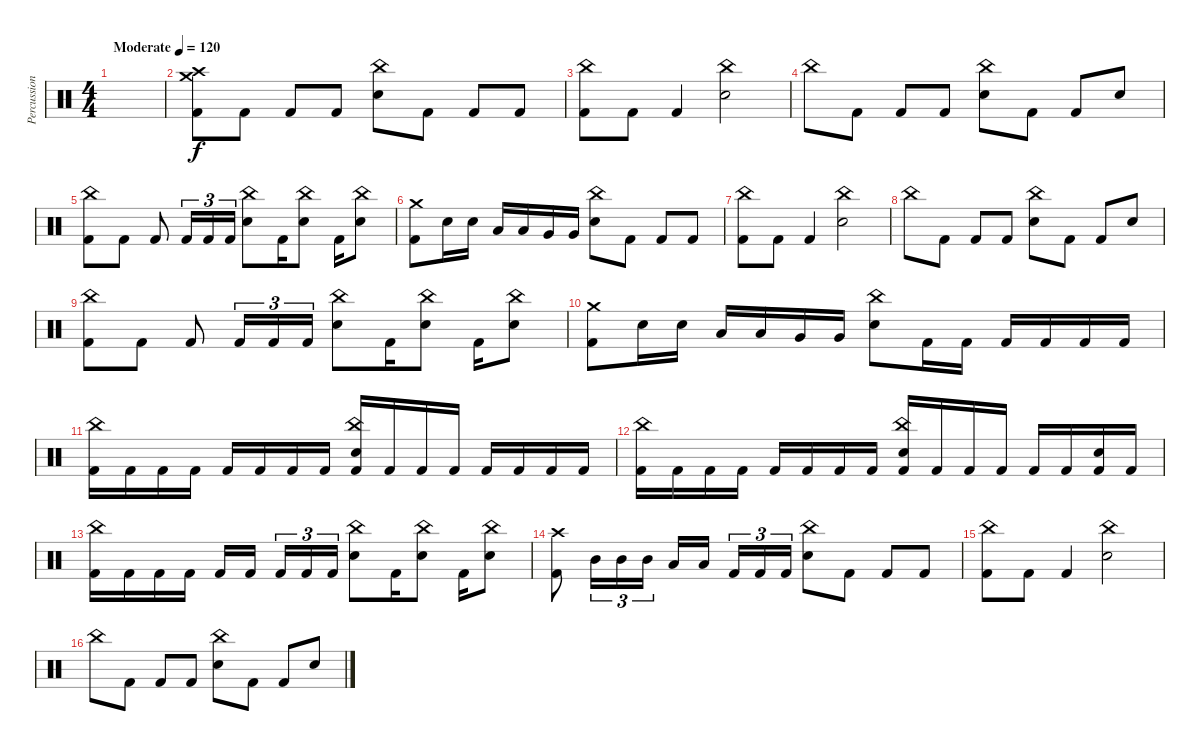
\track ("Percussion" "Percussion") {instrument percussion}
\staff {score}
\articulation defaults
\ts (4 4)
\tempo (120 "Moderate")
\clef neutral
\ks c
|
("Crash high (hit)" "Crash medium (hit)" "Kick (hit) 2").8 "Kick (hit) 2".8 "Kick (hit) 2".8 "Kick (hit) 2".8 ("China (hit)" "Electric Snare (hit)").8 "Kick (hit) 2".8 "Kick (hit) 2".8 "Kick (hit) 2".8 |
("China (hit)" "Kick (hit) 2").8 "Kick (hit) 2".8 "Kick (hit) 2".4 ("China (hit)" "Electric Snare (hit)").2 |
"China (hit)".8 "Kick (hit) 2".8 "Kick (hit) 2".8 "Kick (hit) 2".8 ("China (hit)" "Electric Snare (hit)").8 "Kick (hit) 2".8 "Kick (hit) 2".8 "Electric Snare (hit)".8 |
("China (hit)" "Kick (hit) 2").8 "Kick (hit) 2".8 "Kick (hit) 2".8 "Kick (hit) 2".16{tu (3 2)} "Kick (hit) 2".16{tu (3 2)} "Kick (hit) 2".16{tu (3 2)} ("China (hit)" "Electric Snare (hit)").8 "Kick (hit) 2".16 ("China (hit)" "Electric Snare (hit)").8 "Kick (hit) 2".16 ("China (hit)" "Electric Snare (hit)").8 |
("Crash medium (hit)" "Kick (hit) 2").8 "Electric Snare (hit)".16 "Electric Snare (hit)".16 "Low Tom (hit)".16 "Low Tom (hit)".16 "Very Low Tom (hit)".16 "Very Low Tom (hit)".16 ("China (hit)" "Electric Snare (hit)").8 "Kick (hit) 2".8 "Kick (hit) 2".8 "Kick (hit) 2".8 |
("China (hit)" "Kick (hit) 2").8 "Kick (hit) 2".8 "Kick (hit) 2".4 ("China (hit)" "Electric Snare (hit)").2 |
"China (hit)".8 "Kick (hit) 2".8 "Kick (hit) 2".8 "Kick (hit) 2".8 ("China (hit)" "Electric Snare (hit)").8 "Kick (hit) 2".8 "Kick (hit) 2".8 "Electric Snare (hit)".8 |
("China (hit)" "Kick (hit) 2").8 "Kick (hit) 2".8 "Kick (hit) 2".8 "Kick (hit) 2".16{tu (3 2)} "Kick (hit) 2".16{tu (3 2)} "Kick (hit) 2".16{tu (3 2)} ("China (hit)" "Electric Snare (hit)").8 "Kick (hit) 2".16 ("China (hit)" "Electric Snare (hit)").8 "Kick (hit) 2".16 ("China (hit)" "Electric Snare (hit)").8 |
("Crash medium (hit)" "Kick (hit) 2").8 "Electric Snare (hit)".16 "Electric Snare (hit)".16 "Low Tom (hit)".16 "Low Tom (hit)".16 "Very Low Tom (hit)".16 "Very Low Tom (hit)".16 ("China (hit)" "Electric Snare (hit)").8 "Kick (hit) 2".16 "Kick (hit) 2".16 "Kick (hit) 2".16 "Kick (hit) 2".16 "Kick (hit) 2".16 "Kick (hit) 2".16 |
("China (hit)" "Kick (hit) 2").16 "Kick (hit) 2".16 "Kick (hit) 2".16 "Kick (hit) 2".16 "Kick (hit) 2".16 "Kick (hit) 2".16 "Kick (hit) 2".16 "Kick (hit) 2".16 ("China (hit)" "Electric Snare (hit)" "Kick (hit) 2").16 "Kick (hit) 2".16 "Kick (hit) 2".16 "Kick (hit) 2".16 "Kick (hit) 2".16 "Kick (hit) 2".16 "Kick (hit) 2".16 "Kick (hit) 2".16 |
("China (hit)" "Kick (hit) 2").16 "Kick (hit) 2".16 "Kick (hit) 2".16 "Kick (hit) 2".16 "Kick (hit) 2".16 "Kick (hit) 2".16 "Kick (hit) 2".16 "Kick (hit) 2".16 ("China (hit)" "Electric Snare (hit)" "Kick (hit) 2").16 "Kick (hit) 2".16 "Kick (hit) 2".16 "Kick (hit) 2".16 "Kick (hit) 2".16 "Kick (hit) 2".16 ("Electric Snare (hit)" "Kick (hit) 2").16 "Kick (hit) 2".16 |
("China (hit)" "Kick (hit) 2").16 "Kick (hit) 2".16 "Kick (hit) 2".16 "Kick (hit) 2".16 "Kick (hit) 2".16 "Kick (hit) 2".16{beam splitsecondary} "Kick (hit) 2".16{tu (3 2)} "Kick (hit) 2".16{tu (3 2)} "Kick (hit) 2".16{tu (3 2)} ("China (hit)" "Electric Snare (hit)").8 "Kick (hit) 2".16 ("China (hit)" "Electric Snare (hit)").8 "Kick (hit) 2".16 ("China (hit)" "Electric Snare (hit)").8 |
("Crash high (hit)" "Kick (hit) 2").8 "Mid Tom (hit)".16{tu (3 2)} "Mid Tom (hit)".16{tu (3 2)} "Mid Tom (hit)".16{tu (3 2)} "Low Tom (hit)".16 "Low Tom (hit)".16{beam splitsecondary} "Kick (hit) 2".16{tu (3 2)} "Kick (hit) 2".16{tu (3 2)} "Kick (hit) 2".16{tu (3 2)} ("China (hit)" "Electric Snare (hit)").8 "Kick (hit) 2".8 "Kick (hit) 2".8 "Kick (hit) 2".8 |
("China (hit)" "Kick (hit) 2").8 "Kick (hit) 2".8 "Kick (hit) 2".4 ("China (hit)" "Electric Snare (hit)").2 |
"China (hit)".8 "Kick (hit) 2".8 "Kick (hit) 2".8 "Kick (hit) 2".8 ("China (hit)" "Electric Snare (hit)").8 "Kick (hit) 2".8 "Kick (hit) 2".8 "Electric Snare (hit)".8
